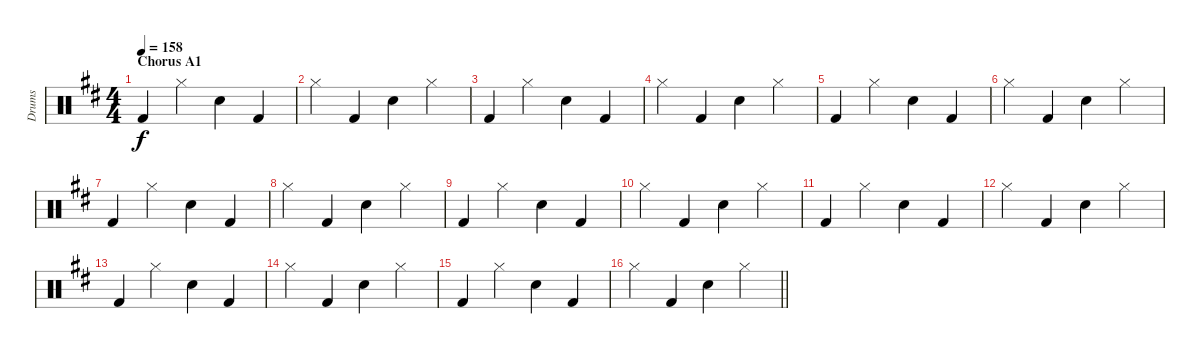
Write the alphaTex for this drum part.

\track ("Drums" "Drums") {instrument percussion}
\staff {score}
\articulation defaults
\ts (4 4)
\section ("" "Chorus A1")
\tempo 158
\clef neutral
\ks d "Kick (hit) 2".4{dy f} "Hi-Hat (closed)".4 "Snare (hit) 2".4 "Kick (hit) 2".4
|
"Hi-Hat (closed)".4 "Kick (hit) 2".4 "Snare (hit) 2".4 "Hi-Hat (closed)".4 |
"Kick (hit) 2".4 "Hi-Hat (closed)".4 "Snare (hit) 2".4 "Kick (hit) 2".4 |
"Hi-Hat (closed)".4 "Kick (hit) 2".4 "Snare (hit) 2".4 "Hi-Hat (closed)".4 |
"Kick (hit) 2".4 "Hi-Hat (closed)".4 "Snare (hit) 2".4 "Kick (hit) 2".4 |
"Hi-Hat (closed)".4 "Kick (hit) 2".4 "Snare (hit) 2".4 "Hi-Hat (closed)".4 |
"Kick (hit) 2".4 "Hi-Hat (closed)".4 "Snare (hit) 2".4 "Kick (hit) 2".4 |
"Hi-Hat (closed)".4 "Kick (hit) 2".4 "Snare (hit) 2".4 "Hi-Hat (closed)".4 |
"Kick (hit) 2".4 "Hi-Hat (closed)".4 "Snare (hit) 2".4 "Kick (hit) 2".4 |
"Hi-Hat (closed)".4 "Kick (hit) 2".4 "Snare (hit) 2".4 "Hi-Hat (closed)".4 |
"Kick (hit) 2".4 "Hi-Hat (closed)".4 "Snare (hit) 2".4 "Kick (hit) 2".4 |
"Hi-Hat (closed)".4 "Kick (hit) 2".4 "Snare (hit) 2".4 "Hi-Hat (closed)".4 |
"Kick (hit) 2".4 "Hi-Hat (closed)".4 "Snare (hit) 2".4 "Kick (hit) 2".4 |
"Hi-Hat (closed)".4 "Kick (hit) 2".4 "Snare (hit) 2".4 "Hi-Hat (closed)".4 |
"Kick (hit) 2".4 "Hi-Hat (closed)".4 "Snare (hit) 2".4 "Kick (hit) 2".4 |
\barLineRight lightlight "Hi-Hat (closed)".4 "Kick (hit) 2".4 "Snare (hit) 2".4 "Hi-Hat (closed)".4
